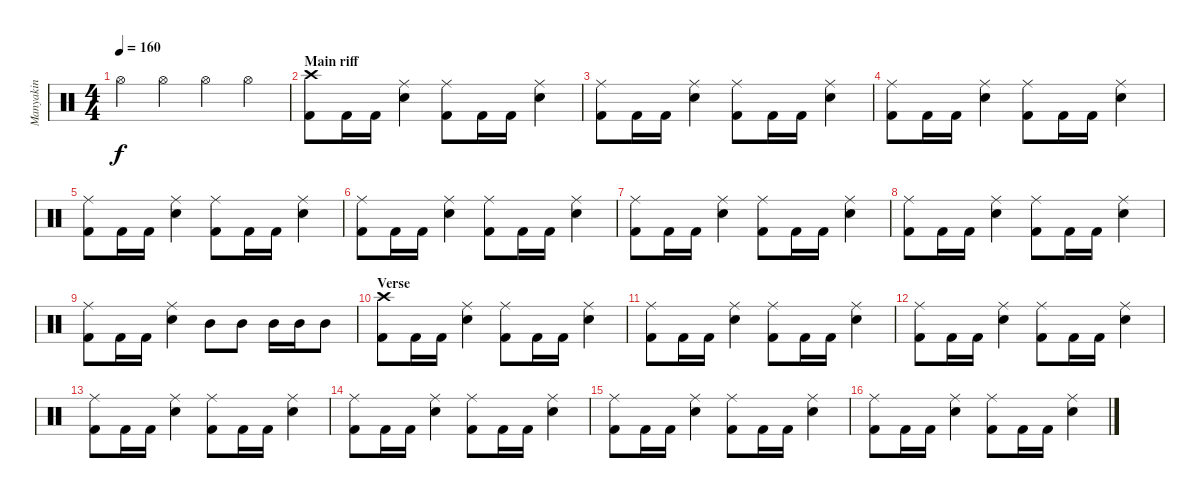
\track ("Manyakin" "Manyakin") {instrument percussion}
\staff {score}
\articulation defaults
\ts (4 4)
\tempo 160
\clef neutral
\ks c "Hi-Hat (open)".4{dy f} "Hi-Hat (open)".4 "Hi-Hat (open)".4 "Hi-Hat (open)".4
|
\section ("" "Main riff")
("Kick (hit) 2" "Crash high (hit)").8 "Kick (hit) 2".16 "Kick (hit) 2".16 ("Snare (hit) 2" "Ride (middle)").4 ("Kick (hit) 2" "Ride (middle)").8 "Kick (hit) 2".16 "Kick (hit) 2".16 ("Snare (hit) 2" "Ride (middle)").4 |
("Kick (hit) 2" "Ride (middle)").8 "Kick (hit) 2".16 "Kick (hit) 2".16 ("Snare (hit) 2" "Ride (middle)").4 ("Kick (hit) 2" "Ride (middle)").8 "Kick (hit) 2".16 "Kick (hit) 2".16 ("Snare (hit) 2" "Ride (middle)").4 |
("Kick (hit) 2" "Ride (middle)").8 "Kick (hit) 2".16 "Kick (hit) 2".16 ("Snare (hit) 2" "Ride (middle)").4 ("Kick (hit) 2" "Ride (middle)").8 "Kick (hit) 2".16 "Kick (hit) 2".16 ("Snare (hit) 2" "Ride (middle)").4 |
("Kick (hit) 2" "Ride (middle)").8 "Kick (hit) 2".16 "Kick (hit) 2".16 ("Snare (hit) 2" "Ride (middle)").4 ("Kick (hit) 2" "Ride (middle)").8 "Kick (hit) 2".16 "Kick (hit) 2".16 ("Snare (hit) 2" "Ride (middle)").4 |
("Kick (hit) 2" "Ride (middle)").8 "Kick (hit) 2".16 "Kick (hit) 2".16 ("Snare (hit) 2" "Ride (middle)").4 ("Kick (hit) 2" "Ride (middle)").8 "Kick (hit) 2".16 "Kick (hit) 2".16 ("Snare (hit) 2" "Ride (middle)").4 |
("Kick (hit) 2" "Ride (middle)").8 "Kick (hit) 2".16 "Kick (hit) 2".16 ("Snare (hit) 2" "Ride (middle)").4 ("Kick (hit) 2" "Ride (middle)").8 "Kick (hit) 2".16 "Kick (hit) 2".16 ("Snare (hit) 2" "Ride (middle)").4 |
("Kick (hit) 2" "Ride (middle)").8 "Kick (hit) 2".16 "Kick (hit) 2".16 ("Snare (hit) 2" "Ride (middle)").4 ("Kick (hit) 2" "Ride (middle)").8 "Kick (hit) 2".16 "Kick (hit) 2".16 ("Snare (hit) 2" "Ride (middle)").4 |
("Kick (hit) 2" "Ride (middle)").8 "Kick (hit) 2".16 "Kick (hit) 2".16 ("Snare (hit) 2" "Ride (middle)").4 "Mid Tom (hit)".8 "Mid Tom (hit)".8 "Mid Tom (hit)".16 "Mid Tom (hit)".16 "Mid Tom (hit)".8 |
\section ("" "Verse")
("Kick (hit) 2" "Crash high (hit)").8 "Kick (hit) 2".16 "Kick (hit) 2".16 ("Snare (hit) 2" "Ride (middle)").4 ("Kick (hit) 2" "Ride (middle)").8 "Kick (hit) 2".16 "Kick (hit) 2".16 ("Snare (hit) 2" "Ride (middle)").4 |
("Kick (hit) 2" "Ride (middle)").8 "Kick (hit) 2".16 "Kick (hit) 2".16 ("Snare (hit) 2" "Ride (middle)").4 ("Kick (hit) 2" "Ride (middle)").8 "Kick (hit) 2".16 "Kick (hit) 2".16 ("Snare (hit) 2" "Ride (middle)").4 |
("Kick (hit) 2" "Ride (middle)").8 "Kick (hit) 2".16 "Kick (hit) 2".16 ("Snare (hit) 2" "Ride (middle)").4 ("Kick (hit) 2" "Ride (middle)").8 "Kick (hit) 2".16 "Kick (hit) 2".16 ("Snare (hit) 2" "Ride (middle)").4 |
("Kick (hit) 2" "Ride (middle)").8 "Kick (hit) 2".16 "Kick (hit) 2".16 ("Snare (hit) 2" "Ride (middle)").4 ("Kick (hit) 2" "Ride (middle)").8 "Kick (hit) 2".16 "Kick (hit) 2".16 ("Snare (hit) 2" "Ride (middle)").4 |
("Kick (hit) 2" "Ride (middle)").8 "Kick (hit) 2".16 "Kick (hit) 2".16 ("Snare (hit) 2" "Ride (middle)").4 ("Kick (hit) 2" "Ride (middle)").8 "Kick (hit) 2".16 "Kick (hit) 2".16 ("Snare (hit) 2" "Ride (middle)").4 |
("Kick (hit) 2" "Ride (middle)").8 "Kick (hit) 2".16 "Kick (hit) 2".16 ("Snare (hit) 2" "Ride (middle)").4 ("Kick (hit) 2" "Ride (middle)").8 "Kick (hit) 2".16 "Kick (hit) 2".16 ("Snare (hit) 2" "Ride (middle)").4 |
("Kick (hit) 2" "Ride (middle)").8 "Kick (hit) 2".16 "Kick (hit) 2".16 ("Snare (hit) 2" "Ride (middle)").4 ("Kick (hit) 2" "Ride (middle)").8 "Kick (hit) 2".16 "Kick (hit) 2".16 ("Snare (hit) 2" "Ride (middle)").4
